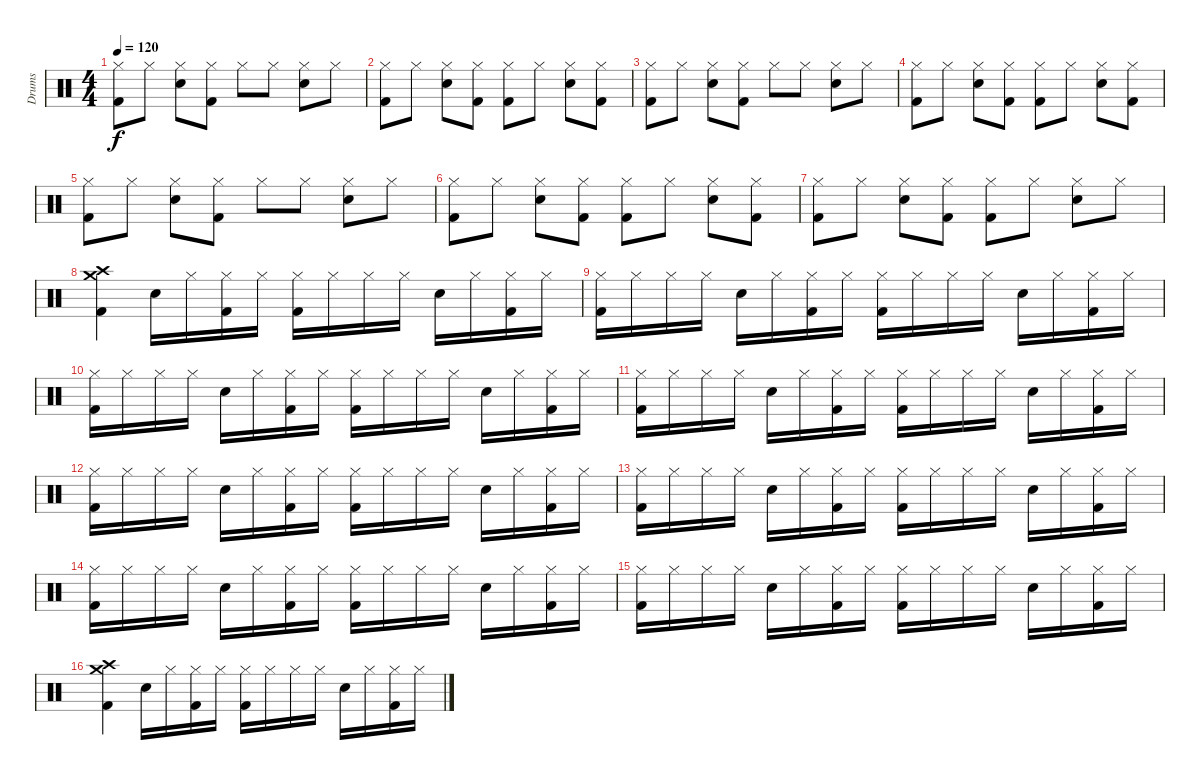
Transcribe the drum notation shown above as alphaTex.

\track ("Drums" "Drums") {instrument percussion}
\staff {score}
\articulation defaults
\ts (4 4)
\tempo 120
\clef neutral
\ks c
("Hi-Hat (closed)" "Kick (hit) 2").8{dy f} "Hi-Hat (closed)".8 ("Hi-Hat (closed)" "Snare (hit) 2").8 ("Hi-Hat (closed)" "Kick (hit) 2").8 "Hi-Hat (closed)".8 "Hi-Hat (closed)".8 ("Hi-Hat (closed)" "Snare (hit) 2").8 "Hi-Hat (closed)".8 |
("Hi-Hat (closed)" "Kick (hit) 2").8 "Hi-Hat (closed)".8 ("Hi-Hat (closed)" "Snare (hit) 2").8 ("Hi-Hat (closed)" "Kick (hit) 2").8 ("Hi-Hat (closed)" "Kick (hit) 2").8 "Hi-Hat (closed)".8 ("Hi-Hat (closed)" "Snare (hit) 2").8 ("Hi-Hat (closed)" "Kick (hit) 2").8 |
("Hi-Hat (closed)" "Kick (hit) 2").8 "Hi-Hat (closed)".8 ("Hi-Hat (closed)" "Snare (hit) 2").8 ("Hi-Hat (closed)" "Kick (hit) 2").8 "Hi-Hat (closed)".8 "Hi-Hat (closed)".8 ("Hi-Hat (closed)" "Snare (hit) 2").8 "Hi-Hat (closed)".8 |
("Hi-Hat (closed)" "Kick (hit) 2").8 "Hi-Hat (closed)".8 ("Hi-Hat (closed)" "Snare (hit) 2").8 ("Hi-Hat (closed)" "Kick (hit) 2").8 ("Hi-Hat (closed)" "Kick (hit) 2").8 "Hi-Hat (closed)".8 ("Hi-Hat (closed)" "Snare (hit) 2").8 ("Hi-Hat (closed)" "Kick (hit) 2").8 |
("Hi-Hat (closed)" "Kick (hit) 2").8 "Hi-Hat (closed)".8 ("Hi-Hat (closed)" "Snare (hit) 2").8 ("Hi-Hat (closed)" "Kick (hit) 2").8 "Hi-Hat (closed)".8 "Hi-Hat (closed)".8 ("Hi-Hat (closed)" "Snare (hit) 2").8 "Hi-Hat (closed)".8 |
("Hi-Hat (closed)" "Kick (hit) 2").8 "Hi-Hat (closed)".8 ("Hi-Hat (closed)" "Snare (hit) 2").8 ("Hi-Hat (closed)" "Kick (hit) 2").8 ("Hi-Hat (closed)" "Kick (hit) 2").8 "Hi-Hat (closed)".8 ("Hi-Hat (closed)" "Snare (hit) 2").8 ("Hi-Hat (closed)" "Kick (hit) 2").8 |
("Hi-Hat (closed)" "Kick (hit) 2").8 "Hi-Hat (closed)".8 ("Hi-Hat (closed)" "Snare (hit) 2").8 ("Hi-Hat (closed)" "Kick (hit) 2").8 ("Hi-Hat (closed)" "Kick (hit) 2").8 "Hi-Hat (closed)".8 ("Hi-Hat (closed)" "Snare (hit) 2").8 "Hi-Hat (closed)".8 |
("Crash medium (hit)" "Crash high (hit)" "Kick (hit) 2").4 "Snare (hit) 2".16 "Hi-Hat (closed)".16 ("Hi-Hat (closed)" "Kick (hit) 2").16 "Hi-Hat (closed)".16 ("Hi-Hat (closed)" "Kick (hit) 2").16 "Hi-Hat (closed)".16 "Hi-Hat (closed)".16 "Hi-Hat (closed)".16 "Snare (hit) 2".16 "Hi-Hat (closed)".16 ("Hi-Hat (closed)" "Kick (hit) 2").16 "Hi-Hat (closed)".16 |
("Hi-Hat (closed)" "Kick (hit) 2").16 "Hi-Hat (closed)".16 "Hi-Hat (closed)".16 "Hi-Hat (closed)".16 "Snare (hit) 2".16 "Hi-Hat (closed)".16 ("Hi-Hat (closed)" "Kick (hit) 2").16 "Hi-Hat (closed)".16 ("Hi-Hat (closed)" "Kick (hit) 2").16 "Hi-Hat (closed)".16 "Hi-Hat (closed)".16 "Hi-Hat (closed)".16 "Snare (hit) 2".16 "Hi-Hat (closed)".16 ("Hi-Hat (closed)" "Kick (hit) 2").16 "Hi-Hat (closed)".16 |
("Hi-Hat (closed)" "Kick (hit) 2").16 "Hi-Hat (closed)".16 "Hi-Hat (closed)".16 "Hi-Hat (closed)".16 "Snare (hit) 2".16 "Hi-Hat (closed)".16 ("Hi-Hat (closed)" "Kick (hit) 2").16 "Hi-Hat (closed)".16 ("Hi-Hat (closed)" "Kick (hit) 2").16 "Hi-Hat (closed)".16 "Hi-Hat (closed)".16 "Hi-Hat (closed)".16 "Snare (hit) 2".16 "Hi-Hat (closed)".16 ("Hi-Hat (closed)" "Kick (hit) 2").16 "Hi-Hat (closed)".16 |
("Hi-Hat (closed)" "Kick (hit) 2").16 "Hi-Hat (closed)".16 "Hi-Hat (closed)".16 "Hi-Hat (closed)".16 "Snare (hit) 2".16 "Hi-Hat (closed)".16 ("Hi-Hat (closed)" "Kick (hit) 2").16 "Hi-Hat (closed)".16 ("Hi-Hat (closed)" "Kick (hit) 2").16 "Hi-Hat (closed)".16 "Hi-Hat (closed)".16 "Hi-Hat (closed)".16 "Snare (hit) 2".16 "Hi-Hat (closed)".16 ("Hi-Hat (closed)" "Kick (hit) 2").16 "Hi-Hat (closed)".16 |
("Hi-Hat (closed)" "Kick (hit) 2").16 "Hi-Hat (closed)".16 "Hi-Hat (closed)".16 "Hi-Hat (closed)".16 "Snare (hit) 2".16 "Hi-Hat (closed)".16 ("Hi-Hat (closed)" "Kick (hit) 2").16 "Hi-Hat (closed)".16 ("Hi-Hat (closed)" "Kick (hit) 2").16 "Hi-Hat (closed)".16 "Hi-Hat (closed)".16 "Hi-Hat (closed)".16 "Snare (hit) 2".16 "Hi-Hat (closed)".16 ("Hi-Hat (closed)" "Kick (hit) 2").16 "Hi-Hat (closed)".16 |
("Hi-Hat (closed)" "Kick (hit) 2").16 "Hi-Hat (closed)".16 "Hi-Hat (closed)".16 "Hi-Hat (closed)".16 "Snare (hit) 2".16 "Hi-Hat (closed)".16 ("Hi-Hat (closed)" "Kick (hit) 2").16 "Hi-Hat (closed)".16 ("Hi-Hat (closed)" "Kick (hit) 2").16 "Hi-Hat (closed)".16 "Hi-Hat (closed)".16 "Hi-Hat (closed)".16 "Snare (hit) 2".16 "Hi-Hat (closed)".16 ("Hi-Hat (closed)" "Kick (hit) 2").16 "Hi-Hat (closed)".16 |
("Hi-Hat (closed)" "Kick (hit) 2").16 "Hi-Hat (closed)".16 "Hi-Hat (closed)".16 "Hi-Hat (closed)".16 "Snare (hit) 2".16 "Hi-Hat (closed)".16 ("Hi-Hat (closed)" "Kick (hit) 2").16 "Hi-Hat (closed)".16 ("Hi-Hat (closed)" "Kick (hit) 2").16 "Hi-Hat (closed)".16 "Hi-Hat (closed)".16 "Hi-Hat (closed)".16 "Snare (hit) 2".16 "Hi-Hat (closed)".16 ("Hi-Hat (closed)" "Kick (hit) 2").16 "Hi-Hat (closed)".16 |
("Hi-Hat (closed)" "Kick (hit) 2").16 "Hi-Hat (closed)".16 "Hi-Hat (closed)".16 "Hi-Hat (closed)".16 "Snare (hit) 2".16 "Hi-Hat (closed)".16 ("Hi-Hat (closed)" "Kick (hit) 2").16 "Hi-Hat (closed)".16 ("Hi-Hat (closed)" "Kick (hit) 2").16 "Hi-Hat (closed)".16 "Hi-Hat (closed)".16 "Hi-Hat (closed)".16 "Snare (hit) 2".16 "Hi-Hat (closed)".16 ("Hi-Hat (closed)" "Kick (hit) 2").16 "Hi-Hat (closed)".16 |
("Crash medium (hit)" "Crash high (hit)" "Kick (hit) 2").4 "Snare (hit) 2".16 "Hi-Hat (closed)".16 ("Hi-Hat (closed)" "Kick (hit) 2").16 "Hi-Hat (closed)".16 ("Hi-Hat (closed)" "Kick (hit) 2").16 "Hi-Hat (closed)".16 "Hi-Hat (closed)".16 "Hi-Hat (closed)".16 "Snare (hit) 2".16 "Hi-Hat (closed)".16 ("Hi-Hat (closed)" "Kick (hit) 2").16 "Hi-Hat (closed)".16
